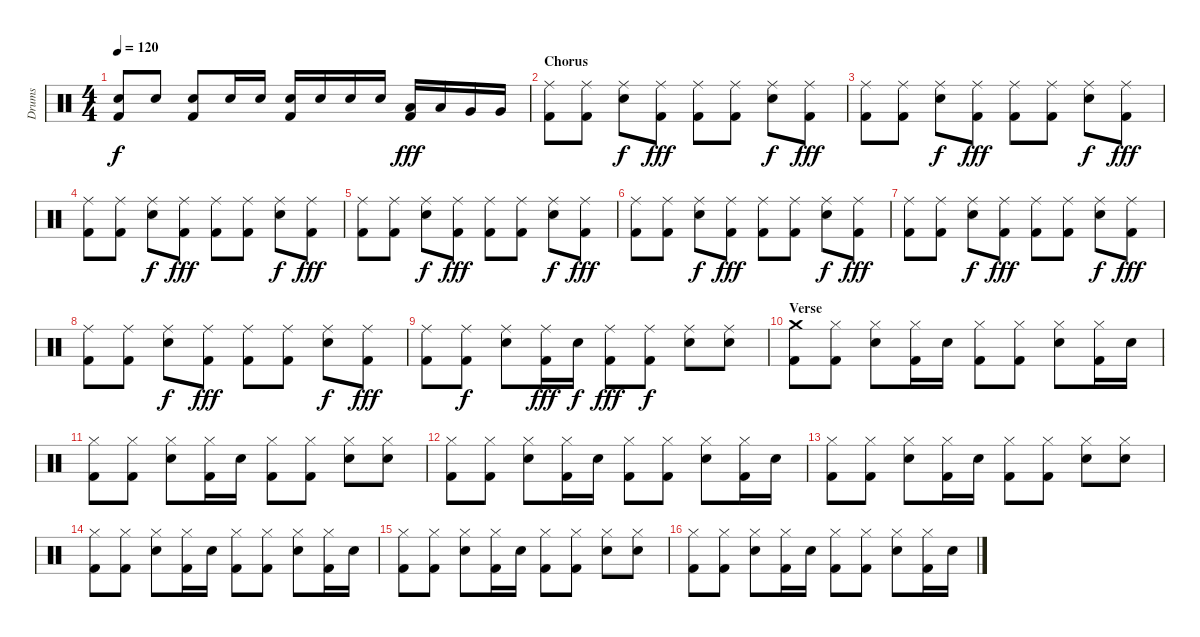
\track ("Drums" "Drums") {instrument percussion}
\staff {score}
\articulation defaults
\ts (4 4)
\tempo 120
\clef neutral
\ks c
("Electric Snare (hit)" "Kick (hit) 2").8{dy f} "Electric Snare (hit)".8 ("Electric Snare (hit)" "Kick (hit) 2").8 "Electric Snare (hit)".16 "Electric Snare (hit)".16 ("Electric Snare (hit)" "Kick (hit) 2").16 "Electric Snare (hit)".16 "Electric Snare (hit)".16 "Electric Snare (hit)".16 ("Low Tom (hit)" "Kick (hit) 2").16{dy fff} "Low Tom (hit)".16 "Very Low Tom (hit)".16 "Very Low Tom (hit)".16 |
\section ("" "Chorus")
("Ride (middle)" "Kick (hit) 2").8 ("Ride (middle)" "Kick (hit) 2").8 ("Ride (middle)" "Electric Snare (hit)").8{dy f} ("Ride (middle)" "Kick (hit) 2").8{dy fff} ("Ride (middle)" "Kick (hit) 2").8 ("Ride (middle)" "Kick (hit) 2").8 ("Ride (middle)" "Electric Snare (hit)").8{dy f} ("Ride (middle)" "Kick (hit) 2").8{dy fff} |
("Ride (middle)" "Kick (hit) 2").8 ("Ride (middle)" "Kick (hit) 2").8 ("Ride (middle)" "Electric Snare (hit)").8{dy f} ("Ride (middle)" "Kick (hit) 2").8{dy fff} ("Ride (middle)" "Kick (hit) 2").8 ("Ride (middle)" "Kick (hit) 2").8 ("Ride (middle)" "Electric Snare (hit)").8{dy f} ("Ride (middle)" "Kick (hit) 2").8{dy fff} |
("Ride (middle)" "Kick (hit) 2").8 ("Ride (middle)" "Kick (hit) 2").8 ("Ride (middle)" "Electric Snare (hit)").8{dy f} ("Ride (middle)" "Kick (hit) 2").8{dy fff} ("Ride (middle)" "Kick (hit) 2").8 ("Ride (middle)" "Kick (hit) 2").8 ("Ride (middle)" "Electric Snare (hit)").8{dy f} ("Ride (middle)" "Kick (hit) 2").8{dy fff} |
("Ride (middle)" "Kick (hit) 2").8 ("Ride (middle)" "Kick (hit) 2").8 ("Ride (middle)" "Electric Snare (hit)").8{dy f} ("Ride (middle)" "Kick (hit) 2").8{dy fff} ("Ride (middle)" "Kick (hit) 2").8 ("Ride (middle)" "Kick (hit) 2").8 ("Ride (middle)" "Electric Snare (hit)").8{dy f} ("Ride (middle)" "Kick (hit) 2").8{dy fff} |
("Ride (middle)" "Kick (hit) 2").8 ("Ride (middle)" "Kick (hit) 2").8 ("Ride (middle)" "Electric Snare (hit)").8{dy f} ("Ride (middle)" "Kick (hit) 2").8{dy fff} ("Ride (middle)" "Kick (hit) 2").8 ("Ride (middle)" "Kick (hit) 2").8 ("Ride (middle)" "Electric Snare (hit)").8{dy f} ("Ride (middle)" "Kick (hit) 2").8{dy fff} |
("Ride (middle)" "Kick (hit) 2").8 ("Ride (middle)" "Kick (hit) 2").8 ("Ride (middle)" "Electric Snare (hit)").8{dy f} ("Ride (middle)" "Kick (hit) 2").8{dy fff} ("Ride (middle)" "Kick (hit) 2").8 ("Ride (middle)" "Kick (hit) 2").8 ("Ride (middle)" "Electric Snare (hit)").8{dy f} ("Ride (middle)" "Kick (hit) 2").8{dy fff} |
("Ride (middle)" "Kick (hit) 2").8 ("Ride (middle)" "Kick (hit) 2").8 ("Ride (middle)" "Electric Snare (hit)").8{dy f} ("Ride (middle)" "Kick (hit) 2").8{dy fff} ("Ride (middle)" "Kick (hit) 2").8 ("Ride (middle)" "Kick (hit) 2").8 ("Ride (middle)" "Electric Snare (hit)").8{dy f} ("Ride (middle)" "Kick (hit) 2").8{dy fff} |
("Ride (middle)" "Kick (hit) 2").8 ("Ride (middle)" "Kick (hit) 2").8{dy f} ("Ride (middle)" "Electric Snare (hit)").8 ("Ride (middle)" "Kick (hit) 2").16{dy fff} "Electric Snare (hit)".16{dy f} ("Ride (middle)" "Kick (hit) 2").8{dy fff} ("Ride (middle)" "Kick (hit) 2").8{dy f} ("Ride (middle)" "Electric Snare (hit)").8 ("Ride (middle)" "Electric Snare (hit)").8 |
\section ("" "Verse")
("Crash medium (hit)" "Kick (hit) 2").8 ("Hi-Hat (closed)" "Kick (hit) 2").8 ("Hi-Hat (closed)" "Electric Snare (hit)").8 ("Hi-Hat (closed)" "Kick (hit) 2").16 "Electric Snare (hit)".16 ("Hi-Hat (closed)" "Kick (hit) 2").8 ("Hi-Hat (closed)" "Kick (hit) 2").8 ("Hi-Hat (closed)" "Electric Snare (hit)").8 ("Hi-Hat (closed)" "Kick (hit) 2").16 "Electric Snare (hit)".16 |
("Hi-Hat (closed)" "Kick (hit) 2").8 ("Hi-Hat (closed)" "Kick (hit) 2").8 ("Hi-Hat (closed)" "Electric Snare (hit)").8 ("Hi-Hat (closed)" "Kick (hit) 2").16 "Electric Snare (hit)".16 ("Hi-Hat (closed)" "Kick (hit) 2").8 ("Hi-Hat (closed)" "Kick (hit) 2").8 ("Hi-Hat (closed)" "Electric Snare (hit)").8 ("Hi-Hat (closed)" "Electric Snare (hit)").8 |
("Hi-Hat (closed)" "Kick (hit) 2").8 ("Hi-Hat (closed)" "Kick (hit) 2").8 ("Hi-Hat (closed)" "Electric Snare (hit)").8 ("Hi-Hat (closed)" "Kick (hit) 2").16 "Electric Snare (hit)".16 ("Hi-Hat (closed)" "Kick (hit) 2").8 ("Hi-Hat (closed)" "Kick (hit) 2").8 ("Hi-Hat (closed)" "Electric Snare (hit)").8 ("Hi-Hat (closed)" "Kick (hit) 2").16 "Electric Snare (hit)".16 |
("Hi-Hat (closed)" "Kick (hit) 2").8 ("Hi-Hat (closed)" "Kick (hit) 2").8 ("Hi-Hat (closed)" "Electric Snare (hit)").8 ("Hi-Hat (closed)" "Kick (hit) 2").16 "Electric Snare (hit)".16 ("Hi-Hat (closed)" "Kick (hit) 2").8 ("Hi-Hat (closed)" "Kick (hit) 2").8 ("Hi-Hat (closed)" "Electric Snare (hit)").8 ("Hi-Hat (closed)" "Electric Snare (hit)").8 |
("Hi-Hat (closed)" "Kick (hit) 2").8 ("Hi-Hat (closed)" "Kick (hit) 2").8 ("Hi-Hat (closed)" "Electric Snare (hit)").8 ("Hi-Hat (closed)" "Kick (hit) 2").16 "Electric Snare (hit)".16 ("Hi-Hat (closed)" "Kick (hit) 2").8 ("Hi-Hat (closed)" "Kick (hit) 2").8 ("Hi-Hat (closed)" "Electric Snare (hit)").8 ("Hi-Hat (closed)" "Kick (hit) 2").16 "Electric Snare (hit)".16 |
("Hi-Hat (closed)" "Kick (hit) 2").8 ("Hi-Hat (closed)" "Kick (hit) 2").8 ("Hi-Hat (closed)" "Electric Snare (hit)").8 ("Hi-Hat (closed)" "Kick (hit) 2").16 "Electric Snare (hit)".16 ("Hi-Hat (closed)" "Kick (hit) 2").8 ("Hi-Hat (closed)" "Kick (hit) 2").8 ("Hi-Hat (closed)" "Electric Snare (hit)").8 ("Hi-Hat (closed)" "Electric Snare (hit)").8 |
("Hi-Hat (closed)" "Kick (hit) 2").8 ("Hi-Hat (closed)" "Kick (hit) 2").8 ("Hi-Hat (closed)" "Electric Snare (hit)").8 ("Hi-Hat (closed)" "Kick (hit) 2").16 "Electric Snare (hit)".16 ("Hi-Hat (closed)" "Kick (hit) 2").8 ("Hi-Hat (closed)" "Kick (hit) 2").8 ("Hi-Hat (closed)" "Electric Snare (hit)").8 ("Hi-Hat (closed)" "Kick (hit) 2").16 "Electric Snare (hit)".16
